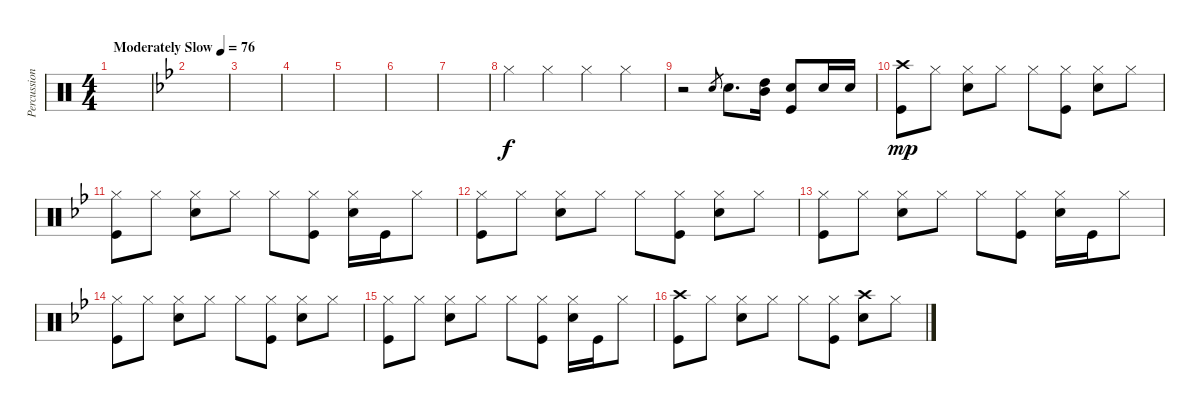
\track ("Percussions" "Percussion") {instrument percussion}
\staff {score}
\articulation defaults
\ts (4 4)
\tempo (76 "Moderately Slow")
\clef neutral
\ks c
|
\ks bb
|
|
|
|
|
|
"Hi-Hat (closed)".4 "Hi-Hat (closed)".4 "Hi-Hat (closed)".4 "Hi-Hat (closed)".4 |
r.2 "Snare (hit) 2".8{gr} "Snare (hit) 2".8{d dy f} ("Mid Tom (hit)" "High Tom (hit)").16 ("Snare (hit) 2" "Kick (hit)").8 "Snare (hit) 2".16 "Snare (hit) 2".16 |
("Crash high (hit)" "Kick (hit)").8{dy mp} "Hi-Hat (closed)".8 ("Hi-Hat (closed)" "Snare (hit) 2").8 "Hi-Hat (closed)".8 "Hi-Hat (closed)".8 ("Hi-Hat (closed)" "Kick (hit)").8 ("Snare (hit) 2" "Hi-Hat (closed)").8 "Hi-Hat (closed)".8 |
("Hi-Hat (closed)" "Kick (hit)").8 "Hi-Hat (closed)".8 ("Hi-Hat (closed)" "Snare (hit) 2").8 "Hi-Hat (closed)".8 "Hi-Hat (closed)".8 ("Hi-Hat (closed)" "Kick (hit)").8 ("Hi-Hat (closed)" "Snare (hit) 2").16 "Kick (hit)".16 "Hi-Hat (closed)".8 |
("Hi-Hat (closed)" "Kick (hit)").8 "Hi-Hat (closed)".8 ("Hi-Hat (closed)" "Snare (hit) 2").8 "Hi-Hat (closed)".8 "Hi-Hat (closed)".8 ("Hi-Hat (closed)" "Kick (hit)").8 ("Snare (hit) 2" "Hi-Hat (closed)").8 "Hi-Hat (closed)".8 |
("Hi-Hat (closed)" "Kick (hit)").8 "Hi-Hat (closed)".8 ("Hi-Hat (closed)" "Snare (hit) 2").8 "Hi-Hat (closed)".8 "Hi-Hat (closed)".8 ("Hi-Hat (closed)" "Kick (hit)").8 ("Hi-Hat (closed)" "Snare (hit) 2").16 "Kick (hit)".16 "Hi-Hat (closed)".8 |
("Hi-Hat (closed)" "Kick (hit)").8 "Hi-Hat (closed)".8 ("Hi-Hat (closed)" "Snare (hit) 2").8 "Hi-Hat (closed)".8 "Hi-Hat (closed)".8 ("Hi-Hat (closed)" "Kick (hit)").8 ("Snare (hit) 2" "Hi-Hat (closed)").8 "Hi-Hat (closed)".8 |
("Hi-Hat (closed)" "Kick (hit)").8 "Hi-Hat (closed)".8 ("Hi-Hat (closed)" "Snare (hit) 2").8 "Hi-Hat (closed)".8 "Hi-Hat (closed)".8 ("Hi-Hat (closed)" "Kick (hit)").8 ("Hi-Hat (closed)" "Snare (hit) 2").16 "Kick (hit)".16 "Hi-Hat (closed)".8 |
("Crash high (hit)" "Kick (hit)").8 "Hi-Hat (closed)".8 ("Hi-Hat (closed)" "Snare (hit) 2").8 "Hi-Hat (closed)".8 "Hi-Hat (closed)".8 ("Hi-Hat (closed)" "Kick (hit)").8 ("Snare (hit) 2" "Crash high (hit)").8 "Hi-Hat (closed)".8
